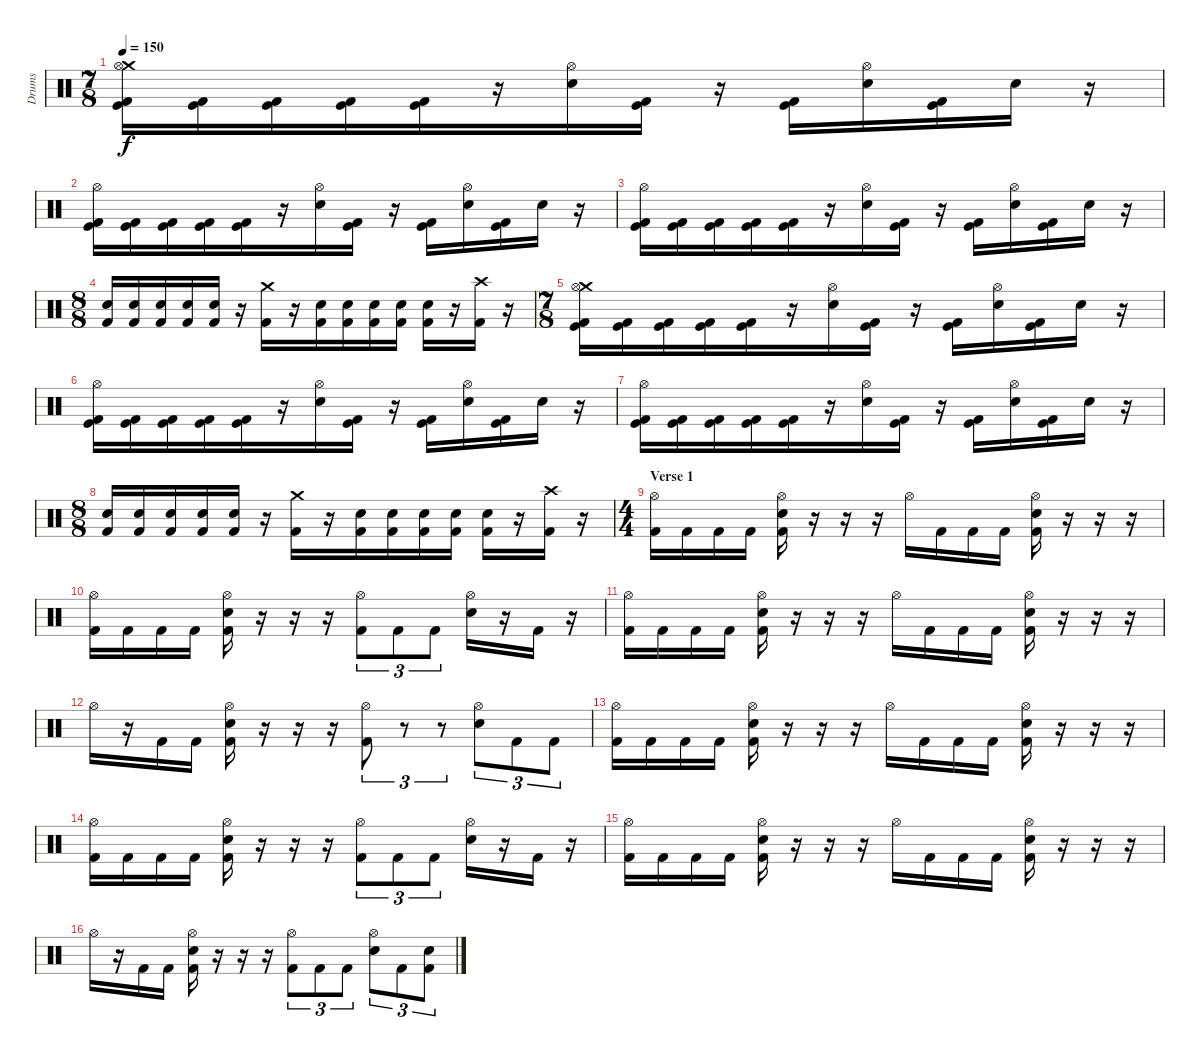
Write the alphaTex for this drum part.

\track ("Drums" "Drums") {instrument percussion}
\staff {score}
\articulation defaults
\ts (7 8)
\tempo 150
\clef neutral
\ks c
("Crash medium (hit)" "Hi-Hat (open)" "Kick (hit) 2" "Kick (hit)").16{dy f} ("Kick (hit) 2" "Kick (hit)").16 ("Kick (hit) 2" "Kick (hit)").16 ("Kick (hit) 2" "Kick (hit)").16 ("Kick (hit)" "Kick (hit) 2").16 r.16 ("Hi-Hat (open)" "Electric Snare (hit)").16 ("Kick (hit)" "Kick (hit) 2").16 r.16 ("Kick (hit)" "Kick (hit) 2").16 ("Hi-Hat (open)" "Electric Snare (hit)").16 ("Kick (hit) 2" "Kick (hit)").16 "Electric Snare (hit)".16 r.16 |
("Hi-Hat (open)" "Kick (hit) 2" "Kick (hit)").16 ("Kick (hit) 2" "Kick (hit)").16 ("Kick (hit) 2" "Kick (hit)").16 ("Kick (hit) 2" "Kick (hit)").16 ("Kick (hit)" "Kick (hit) 2").16 r.16 ("Hi-Hat (open)" "Electric Snare (hit)").16 ("Kick (hit)" "Kick (hit) 2").16 r.16 ("Kick (hit)" "Kick (hit) 2").16 ("Hi-Hat (open)" "Electric Snare (hit)").16 ("Kick (hit) 2" "Kick (hit)").16 "Electric Snare (hit)".16 r.16 |
("Hi-Hat (open)" "Kick (hit) 2" "Kick (hit)").16 ("Kick (hit) 2" "Kick (hit)").16 ("Kick (hit) 2" "Kick (hit)").16 ("Kick (hit) 2" "Kick (hit)").16 ("Kick (hit)" "Kick (hit) 2").16 r.16 ("Hi-Hat (open)" "Electric Snare (hit)").16 ("Kick (hit)" "Kick (hit) 2").16 r.16 ("Kick (hit)" "Kick (hit) 2").16 ("Hi-Hat (open)" "Electric Snare (hit)").16 ("Kick (hit) 2" "Kick (hit)").16 "Electric Snare (hit)".16 r.16 |
\ts (8 8)
("Electric Snare (hit)" "Kick (hit) 2").16 ("Electric Snare (hit)" "Kick (hit) 2").16 ("Electric Snare (hit)" "Kick (hit) 2").16 ("Electric Snare (hit)" "Kick (hit) 2").16 ("Electric Snare (hit)" "Kick (hit) 2").16 r.16 ("Crash medium (hit)" "Kick (hit) 2").16 r.16 ("Electric Snare (hit)" "Kick (hit) 2").16 ("Electric Snare (hit)" "Kick (hit) 2").16 ("Electric Snare (hit)" "Kick (hit) 2").16 ("Electric Snare (hit)" "Kick (hit) 2").16 ("Electric Snare (hit)" "Kick (hit) 2").16 r.16 ("Crash high (hit)" "Kick (hit) 2").16 r.16 |
\ts (7 8)
("Crash medium (hit)" "Hi-Hat (open)" "Kick (hit) 2" "Kick (hit)").16 ("Kick (hit) 2" "Kick (hit)").16 ("Kick (hit) 2" "Kick (hit)").16 ("Kick (hit) 2" "Kick (hit)").16 ("Kick (hit)" "Kick (hit) 2").16 r.16 ("Hi-Hat (open)" "Electric Snare (hit)").16 ("Kick (hit)" "Kick (hit) 2").16 r.16 ("Kick (hit)" "Kick (hit) 2").16 ("Hi-Hat (open)" "Electric Snare (hit)").16 ("Kick (hit) 2" "Kick (hit)").16 "Electric Snare (hit)".16 r.16 |
("Hi-Hat (open)" "Kick (hit) 2" "Kick (hit)").16 ("Kick (hit) 2" "Kick (hit)").16 ("Kick (hit) 2" "Kick (hit)").16 ("Kick (hit) 2" "Kick (hit)").16 ("Kick (hit)" "Kick (hit) 2").16 r.16 ("Hi-Hat (open)" "Electric Snare (hit)").16 ("Kick (hit)" "Kick (hit) 2").16 r.16 ("Kick (hit)" "Kick (hit) 2").16 ("Hi-Hat (open)" "Electric Snare (hit)").16 ("Kick (hit) 2" "Kick (hit)").16 "Electric Snare (hit)".16 r.16 |
("Hi-Hat (open)" "Kick (hit) 2" "Kick (hit)").16 ("Kick (hit) 2" "Kick (hit)").16 ("Kick (hit) 2" "Kick (hit)").16 ("Kick (hit) 2" "Kick (hit)").16 ("Kick (hit)" "Kick (hit) 2").16 r.16 ("Hi-Hat (open)" "Electric Snare (hit)").16 ("Kick (hit)" "Kick (hit) 2").16 r.16 ("Kick (hit)" "Kick (hit) 2").16 ("Hi-Hat (open)" "Electric Snare (hit)").16 ("Kick (hit) 2" "Kick (hit)").16 "Electric Snare (hit)".16 r.16 |
\ts (8 8)
("Electric Snare (hit)" "Kick (hit) 2").16 ("Electric Snare (hit)" "Kick (hit) 2").16 ("Electric Snare (hit)" "Kick (hit) 2").16 ("Electric Snare (hit)" "Kick (hit) 2").16 ("Electric Snare (hit)" "Kick (hit) 2").16 r.16 ("Crash medium (hit)" "Kick (hit) 2").16 r.16 ("Electric Snare (hit)" "Kick (hit) 2").16 ("Electric Snare (hit)" "Kick (hit) 2").16 ("Electric Snare (hit)" "Kick (hit) 2").16 ("Electric Snare (hit)" "Kick (hit) 2").16 ("Electric Snare (hit)" "Kick (hit) 2").16 r.16 ("Crash high (hit)" "Kick (hit) 2").16 r.16 |
\ts (4 4)
\section ("" "Verse 1")
("Hi-Hat (open)" "Kick (hit) 2").16 "Kick (hit) 2".16 "Kick (hit) 2".16 "Kick (hit) 2".16 ("Hi-Hat (open)" "Electric Snare (hit)" "Kick (hit) 2").16 r.16 r.16 r.16 "Hi-Hat (open)".16 "Kick (hit) 2".16 "Kick (hit) 2".16 "Kick (hit) 2".16 ("Hi-Hat (open)" "Electric Snare (hit)" "Kick (hit) 2").16 r.16 r.16 r.16 |
("Hi-Hat (open)" "Kick (hit) 2").16 "Kick (hit) 2".16 "Kick (hit) 2".16 "Kick (hit) 2".16 ("Hi-Hat (open)" "Electric Snare (hit)" "Kick (hit) 2").16 r.16 r.16 r.16 ("Hi-Hat (open)" "Kick (hit) 2").8{tu (3 2)} "Kick (hit) 2".8{tu (3 2)} "Kick (hit) 2".8{tu (3 2)} ("Hi-Hat (open)" "Electric Snare (hit)").16 r.16 "Kick (hit) 2".16 r.16 |
("Hi-Hat (open)" "Kick (hit) 2").16 "Kick (hit) 2".16 "Kick (hit) 2".16 "Kick (hit) 2".16 ("Hi-Hat (open)" "Electric Snare (hit)" "Kick (hit) 2").16 r.16 r.16 r.16 "Hi-Hat (open)".16 "Kick (hit) 2".16 "Kick (hit) 2".16 "Kick (hit) 2".16 ("Hi-Hat (open)" "Electric Snare (hit)" "Kick (hit) 2").16 r.16 r.16 r.16 |
"Hi-Hat (open)".16 r.16 "Kick (hit) 2".16 "Kick (hit) 2".16 ("Hi-Hat (open)" "Electric Snare (hit)" "Kick (hit) 2").16 r.16 r.16 r.16 ("Hi-Hat (open)" "Kick (hit) 2").8{tu (3 2)} r.8{tu (3 2)} r.8{tu (3 2)} ("Hi-Hat (open)" "Electric Snare (hit)").8{tu (3 2)} "Kick (hit) 2".8{tu (3 2)} "Kick (hit) 2".8{tu (3 2)} |
("Hi-Hat (open)" "Kick (hit) 2").16 "Kick (hit) 2".16 "Kick (hit) 2".16 "Kick (hit) 2".16 ("Hi-Hat (open)" "Electric Snare (hit)" "Kick (hit) 2").16 r.16 r.16 r.16 "Hi-Hat (open)".16 "Kick (hit) 2".16 "Kick (hit) 2".16 "Kick (hit) 2".16 ("Hi-Hat (open)" "Electric Snare (hit)" "Kick (hit) 2").16 r.16 r.16 r.16 |
("Hi-Hat (open)" "Kick (hit) 2").16 "Kick (hit) 2".16 "Kick (hit) 2".16 "Kick (hit) 2".16 ("Hi-Hat (open)" "Electric Snare (hit)" "Kick (hit) 2").16 r.16 r.16 r.16 ("Hi-Hat (open)" "Kick (hit) 2").8{tu (3 2)} "Kick (hit) 2".8{tu (3 2)} "Kick (hit) 2".8{tu (3 2)} ("Hi-Hat (open)" "Electric Snare (hit)").16 r.16 "Kick (hit) 2".16 r.16 |
("Hi-Hat (open)" "Kick (hit) 2").16 "Kick (hit) 2".16 "Kick (hit) 2".16 "Kick (hit) 2".16 ("Hi-Hat (open)" "Electric Snare (hit)" "Kick (hit) 2").16 r.16 r.16 r.16 "Hi-Hat (open)".16 "Kick (hit) 2".16 "Kick (hit) 2".16 "Kick (hit) 2".16 ("Hi-Hat (open)" "Electric Snare (hit)" "Kick (hit) 2").16 r.16 r.16 r.16 |
"Hi-Hat (open)".16 r.16 "Kick (hit) 2".16 "Kick (hit) 2".16 ("Hi-Hat (open)" "Electric Snare (hit)" "Kick (hit) 2").16 r.16 r.16 r.16 ("Hi-Hat (open)" "Kick (hit) 2").8{tu (3 2)} "Kick (hit) 2".8{tu (3 2)} "Kick (hit) 2".8{tu (3 2)} ("Hi-Hat (open)" "Electric Snare (hit)").8{tu (3 2)} "Kick (hit) 2".8{tu (3 2)} ("Electric Snare (hit)" "Kick (hit) 2").8{tu (3 2)}
